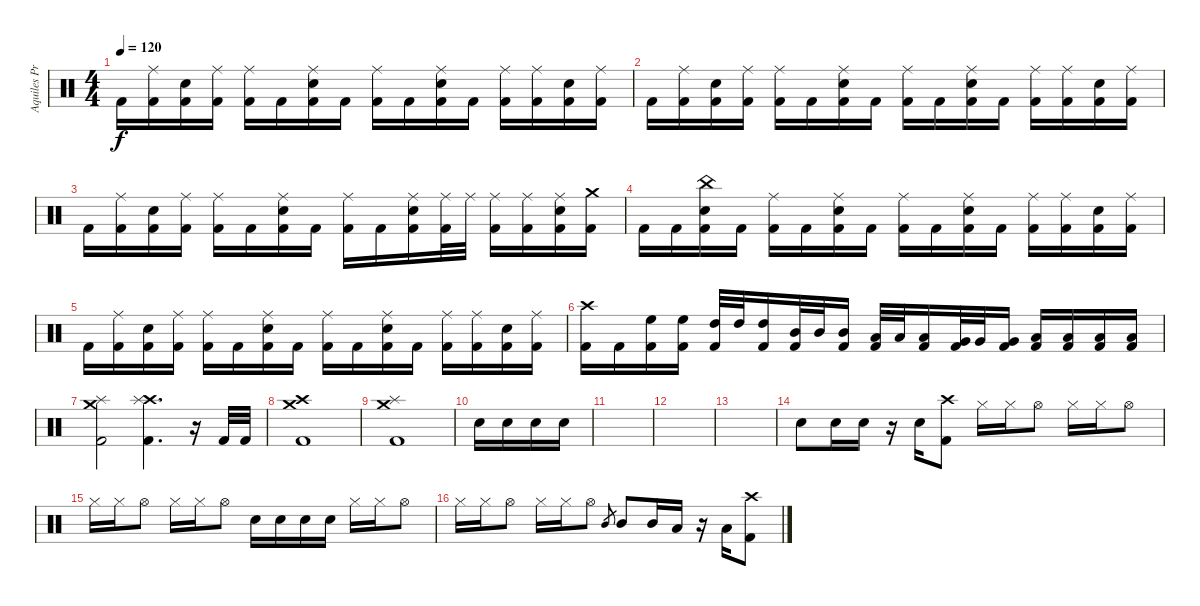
\track ("Aquiles Priester" "Aquiles Pr") {instrument percussion}
\staff {score}
\articulation defaults
\ts (4 4)
\tempo 120
\clef neutral
\ks c "Kick (hit) 2".16{dy f}
("Ride (middle)" "Kick (hit) 2").16 ("Electric Snare (hit)" "Kick (hit) 2").16 ("Ride (middle)" "Kick (hit) 2").16 ("Ride (middle)" "Kick (hit) 2").16 "Kick (hit) 2".16 ("Ride (middle)" "Electric Snare (hit)" "Kick (hit) 2").16 "Kick (hit) 2".16 ("Ride (middle)" "Kick (hit) 2").16 "Kick (hit) 2".16 ("Ride (middle)" "Electric Snare (hit)" "Kick (hit) 2").16 "Kick (hit) 2".16 ("Ride (middle)" "Kick (hit) 2").16 ("Ride (middle)" "Kick (hit) 2").16 ("Electric Snare (hit)" "Kick (hit) 2").16 ("Ride (middle)" "Kick (hit) 2").16 |
"Kick (hit) 2".16 ("Ride (middle)" "Kick (hit) 2").16 ("Electric Snare (hit)" "Kick (hit) 2").16 ("Ride (middle)" "Kick (hit) 2").16 ("Ride (middle)" "Kick (hit) 2").16 "Kick (hit) 2".16 ("Ride (middle)" "Electric Snare (hit)" "Kick (hit) 2").16 "Kick (hit) 2".16 ("Ride (middle)" "Kick (hit) 2").16 "Kick (hit) 2".16 ("Ride (middle)" "Electric Snare (hit)" "Kick (hit) 2").16 "Kick (hit) 2".16 ("Ride (middle)" "Kick (hit) 2").16 ("Ride (middle)" "Kick (hit) 2").16 ("Electric Snare (hit)" "Kick (hit) 2").16 ("Ride (middle)" "Kick (hit) 2").16 |
"Kick (hit) 2".16 ("Ride (middle)" "Kick (hit) 2").16 ("Electric Snare (hit)" "Kick (hit) 2").16 ("Ride (middle)" "Kick (hit) 2").16 ("Ride (middle)" "Kick (hit) 2").16 "Kick (hit) 2".16 ("Ride (middle)" "Electric Snare (hit)" "Kick (hit) 2").16 "Kick (hit) 2".16 ("Ride (middle)" "Kick (hit) 2").16 "Kick (hit) 2".16 ("Ride (middle)" "Electric Snare (hit)" "Kick (hit) 2").16 ("Ride (middle)" "Kick (hit) 2").32 "Ride (middle)".32 ("Ride (middle)" "Kick (hit) 2").16 ("Ride (middle)" "Kick (hit) 2").16 ("Ride (middle)" "Electric Snare (hit)" "Kick (hit) 2").16 ("Crash medium (hit)" "Kick (hit) 2").16 |
"Kick (hit) 2".16 "Kick (hit) 2".16 ("China (hit)" "Electric Snare (hit)" "Kick (hit) 2").16 "Kick (hit) 2".16 ("Ride (middle)" "Kick (hit) 2").16 "Kick (hit) 2".16 ("Ride (middle)" "Electric Snare (hit)" "Kick (hit) 2").16 "Kick (hit) 2".16 ("Ride (middle)" "Kick (hit) 2").16 "Kick (hit) 2".16 ("Ride (middle)" "Electric Snare (hit)" "Kick (hit) 2").16 "Kick (hit) 2".16 ("Ride (middle)" "Kick (hit) 2").16 ("Ride (middle)" "Kick (hit) 2").16 ("Electric Snare (hit)" "Kick (hit) 2").16 ("Ride (middle)" "Kick (hit) 2").16 |
"Kick (hit) 2".16 ("Ride (middle)" "Kick (hit) 2").16 ("Electric Snare (hit)" "Kick (hit) 2").16 ("Ride (middle)" "Kick (hit) 2").16 ("Ride (middle)" "Kick (hit) 2").16 "Kick (hit) 2".16 ("Ride (middle)" "Electric Snare (hit)" "Kick (hit) 2").16 "Kick (hit) 2".16 ("Ride (middle)" "Kick (hit) 2").16 "Kick (hit) 2".16 ("Ride (middle)" "Electric Snare (hit)" "Kick (hit) 2").16 "Kick (hit) 2".16 ("Ride (middle)" "Kick (hit) 2").16 ("Ride (middle)" "Kick (hit) 2").16 ("Electric Snare (hit)" "Kick (hit) 2").16 ("Ride (middle)" "Kick (hit) 2").16 |
("Crash high (hit)" "Kick (hit) 2").16 "Kick (hit) 2".16 ("High Floor Tom (hit)" "Kick (hit) 2").16 ("High Floor Tom (hit)" "Kick (hit) 2").16 ("High Tom (hit)" "Kick (hit) 2").32 "High Tom (hit)".32 ("High Tom (hit)" "Kick (hit) 2").16 ("Mid Tom (hit)" "Kick (hit) 2").32 "Mid Tom (hit)".32 ("Mid Tom (hit)" "Kick (hit) 2").16 ("Low Tom (hit)" "Kick (hit) 2").32 "Low Tom (hit)".32 ("Low Tom (hit)" "Kick (hit) 2").16 ("Very Low Tom (hit)" "Kick (hit) 2").32 "Very Low Tom (hit)".32 ("Very Low Tom (hit)" "Kick (hit) 2").16 ("Low Floor Tom (hit)" "Kick (hit) 2").16 ("Low Floor Tom (hit)" "Kick (hit) 2").16 ("Low Floor Tom (hit)" "Kick (hit) 2").16 ("Low Floor Tom (hit)" "Kick (hit) 2").16 |
("Crash medium (hit)" "Splash (hit)" "Kick (hit) 2").2 ("Crash high (hit)" "Splash (hit)" "Kick (hit) 2").4{d} r.16 "Kick (hit) 2".32 "Kick (hit) 2".32 |
("Crash medium (hit)" "Crash high (hit)" "Kick (hit) 2").1 |
("Crash medium (hit)" "Splash (hit)" "Kick (hit) 2").1 |
"Electric Snare (hit)".16 "Electric Snare (hit)".16 "Electric Snare (hit)".16 "Electric Snare (hit)".16 |
|
|
|
"Electric Snare (hit)".8 "Electric Snare (hit)".16 "Electric Snare (hit)".16 r.16 "Electric Snare (hit)".16 ("Crash high (hit)" "Kick (hit) 2").8 "Hi-Hat (closed)".16 "Hi-Hat (closed)".16 "Hi-Hat (open)".8 "Hi-Hat (closed)".16 "Hi-Hat (closed)".16 "Hi-Hat (open)".8 |
"Hi-Hat (closed)".16 "Hi-Hat (closed)".16 "Hi-Hat (open)".8 "Hi-Hat (closed)".16 "Hi-Hat (closed)".16 "Hi-Hat (open)".8 "Electric Snare (hit)".16 "Electric Snare (hit)".16 "Electric Snare (hit)".16 "Electric Snare (hit)".16 "Hi-Hat (closed)".16 "Hi-Hat (closed)".16 "Hi-Hat (open)".8 |
"Hi-Hat (closed)".16 "Hi-Hat (closed)".16 "Hi-Hat (open)".8 "Hi-Hat (closed)".16 "Hi-Hat (closed)".16 "Hi-Hat (open)".8 "Mid Tom (hit)".8{gr} "Mid Tom (hit)".8 "Mid Tom (hit)".16 "Low Tom (hit)".16 r.16 "Low Tom (hit)".16 ("Crash high (hit)" "Kick (hit) 2").8
